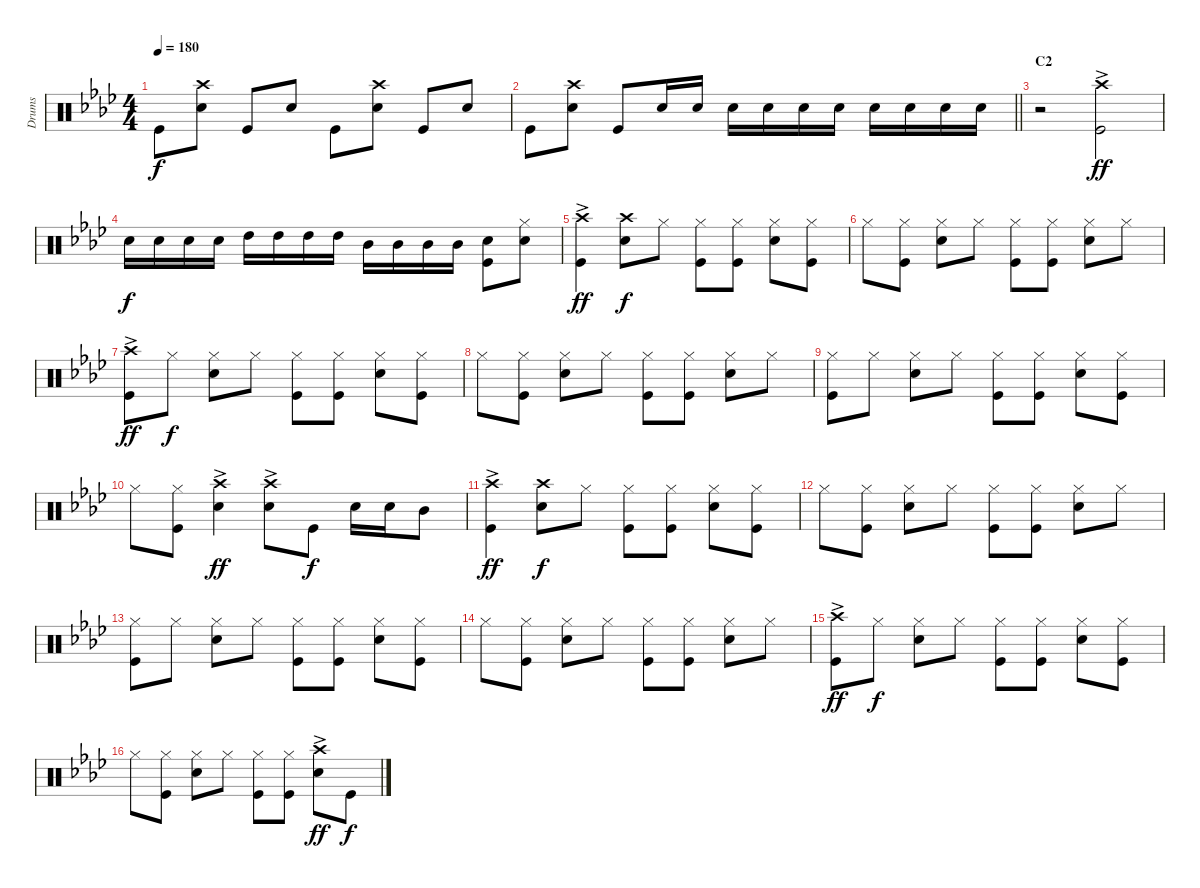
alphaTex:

\track ("Drums" "Drums") {instrument percussion}
\staff {score}
\articulation defaults
\ts (4 4)
\tempo 180
\clef neutral
\ks ab "Kick (hit)".8{dy f}
("Crash high (hit)" "Snare (hit) 2").8 "Kick (hit)".8 "Snare (hit) 2".8 "Kick (hit)".8 ("Crash high (hit)" "Snare (hit) 2").8 "Kick (hit)".8 "Snare (hit) 2".8 |
\barLineRight lightlight "Kick (hit)".8
("Crash high (hit)" "Snare (hit) 2").8 "Kick (hit)".8 "Snare (hit) 2".16 "Snare (hit) 2".16 "Snare (hit) 2".16 "Snare (hit) 2".16 "Snare (hit) 2".16 "Snare (hit) 2".16 "Snare (hit) 2".16 "Snare (hit) 2".16 "Snare (hit) 2".16 "Snare (hit) 2".16 |
\section ("" "C2")
r.2 ("Crash high (hit)"{ac} "Kick (hit)").2{dy ff} |
"Snare (hit) 2".16{dy f} "Snare (hit) 2".16 "Snare (hit) 2".16 "Snare (hit) 2".16 "High Tom (hit)".16 "High Tom (hit)".16 "High Tom (hit)".16 "High Tom (hit)".16 "Mid Tom (hit)".16 "Mid Tom (hit)".16 "Mid Tom (hit)".16 "Mid Tom (hit)".16 ("Snare (hit) 2" "Kick (hit)").8 ("Hi-Hat (closed)" "Snare (hit) 2").8 |
("Crash high (hit)"{ac} "Kick (hit)").4{dy ff} ("Crash high (hit)" "Snare (hit) 2").8{dy f} "Hi-Hat (closed)".8 ("Hi-Hat (closed)" "Kick (hit)").8 ("Hi-Hat (closed)" "Kick (hit)").8 ("Hi-Hat (closed)" "Snare (hit) 2").8 ("Hi-Hat (closed)" "Kick (hit)").8 |
"Hi-Hat (closed)".8 ("Hi-Hat (closed)" "Kick (hit)").8 ("Hi-Hat (closed)" "Snare (hit) 2").8 "Hi-Hat (closed)".8 ("Hi-Hat (closed)" "Kick (hit)").8 ("Hi-Hat (closed)" "Kick (hit)").8 ("Hi-Hat (closed)" "Snare (hit) 2").8 "Hi-Hat (closed)".8 |
("Crash high (hit)"{ac} "Kick (hit)").8{dy ff} "Hi-Hat (closed)".8{dy f} ("Hi-Hat (closed)" "Snare (hit) 2").8 "Hi-Hat (closed)".8 ("Hi-Hat (closed)" "Kick (hit)").8 ("Hi-Hat (closed)" "Kick (hit)").8 ("Hi-Hat (closed)" "Snare (hit) 2").8 ("Hi-Hat (closed)" "Kick (hit)").8 |
"Hi-Hat (closed)".8 ("Hi-Hat (closed)" "Kick (hit)").8 ("Hi-Hat (closed)" "Snare (hit) 2").8 "Hi-Hat (closed)".8 ("Hi-Hat (closed)" "Kick (hit)").8 ("Hi-Hat (closed)" "Kick (hit)").8 ("Hi-Hat (closed)" "Snare (hit) 2").8 "Hi-Hat (closed)".8 |
("Hi-Hat (closed)" "Kick (hit)").8 "Hi-Hat (closed)".8 ("Hi-Hat (closed)" "Snare (hit) 2").8 "Hi-Hat (closed)".8 ("Hi-Hat (closed)" "Kick (hit)").8 ("Hi-Hat (closed)" "Kick (hit)").8 ("Hi-Hat (closed)" "Snare (hit) 2").8 ("Hi-Hat (closed)" "Kick (hit)").8 |
"Hi-Hat (closed)".8 ("Hi-Hat (closed)" "Kick (hit)").8 ("Crash high (hit)"{ac} "Snare (hit) 2").4{dy ff} ("Crash high (hit)"{ac} "Snare (hit) 2").8 "Kick (hit)".8{dy f} "Snare (hit) 2".16 "Snare (hit) 2".16 "Mid Tom (hit)".8 |
("Crash high (hit)"{ac} "Kick (hit)").4{dy ff} ("Crash high (hit)" "Snare (hit) 2").8{dy f} "Hi-Hat (closed)".8 ("Hi-Hat (closed)" "Kick (hit)").8 ("Hi-Hat (closed)" "Kick (hit)").8 ("Hi-Hat (closed)" "Snare (hit) 2").8 ("Hi-Hat (closed)" "Kick (hit)").8 |
"Hi-Hat (closed)".8 ("Hi-Hat (closed)" "Kick (hit)").8 ("Hi-Hat (closed)" "Snare (hit) 2").8 "Hi-Hat (closed)".8 ("Hi-Hat (closed)" "Kick (hit)").8 ("Hi-Hat (closed)" "Kick (hit)").8 ("Hi-Hat (closed)" "Snare (hit) 2").8 "Hi-Hat (closed)".8 |
("Hi-Hat (closed)" "Kick (hit)").8 "Hi-Hat (closed)".8 ("Hi-Hat (closed)" "Snare (hit) 2").8 "Hi-Hat (closed)".8 ("Hi-Hat (closed)" "Kick (hit)").8 ("Hi-Hat (closed)" "Kick (hit)").8 ("Hi-Hat (closed)" "Snare (hit) 2").8 ("Hi-Hat (closed)" "Kick (hit)").8 |
"Hi-Hat (closed)".8 ("Hi-Hat (closed)" "Kick (hit)").8 ("Hi-Hat (closed)" "Snare (hit) 2").8 "Hi-Hat (closed)".8 ("Hi-Hat (closed)" "Kick (hit)").8 ("Hi-Hat (closed)" "Kick (hit)").8 ("Hi-Hat (closed)" "Snare (hit) 2").8 "Hi-Hat (closed)".8 |
("Crash high (hit)"{ac} "Kick (hit)").8{dy ff} "Hi-Hat (closed)".8{dy f} ("Hi-Hat (closed)" "Snare (hit) 2").8 "Hi-Hat (closed)".8 ("Hi-Hat (closed)" "Kick (hit)").8 ("Hi-Hat (closed)" "Kick (hit)").8 ("Hi-Hat (closed)" "Snare (hit) 2").8 ("Hi-Hat (closed)" "Kick (hit)").8 |
"Hi-Hat (closed)".8 ("Hi-Hat (closed)" "Kick (hit)").8 ("Hi-Hat (closed)" "Snare (hit) 2").8 "Hi-Hat (closed)".8 ("Hi-Hat (closed)" "Kick (hit)").8 ("Hi-Hat (closed)" "Kick (hit)").8 ("Crash high (hit)"{ac} "Snare (hit) 2").8{dy ff} "Kick (hit)".8{dy f}
